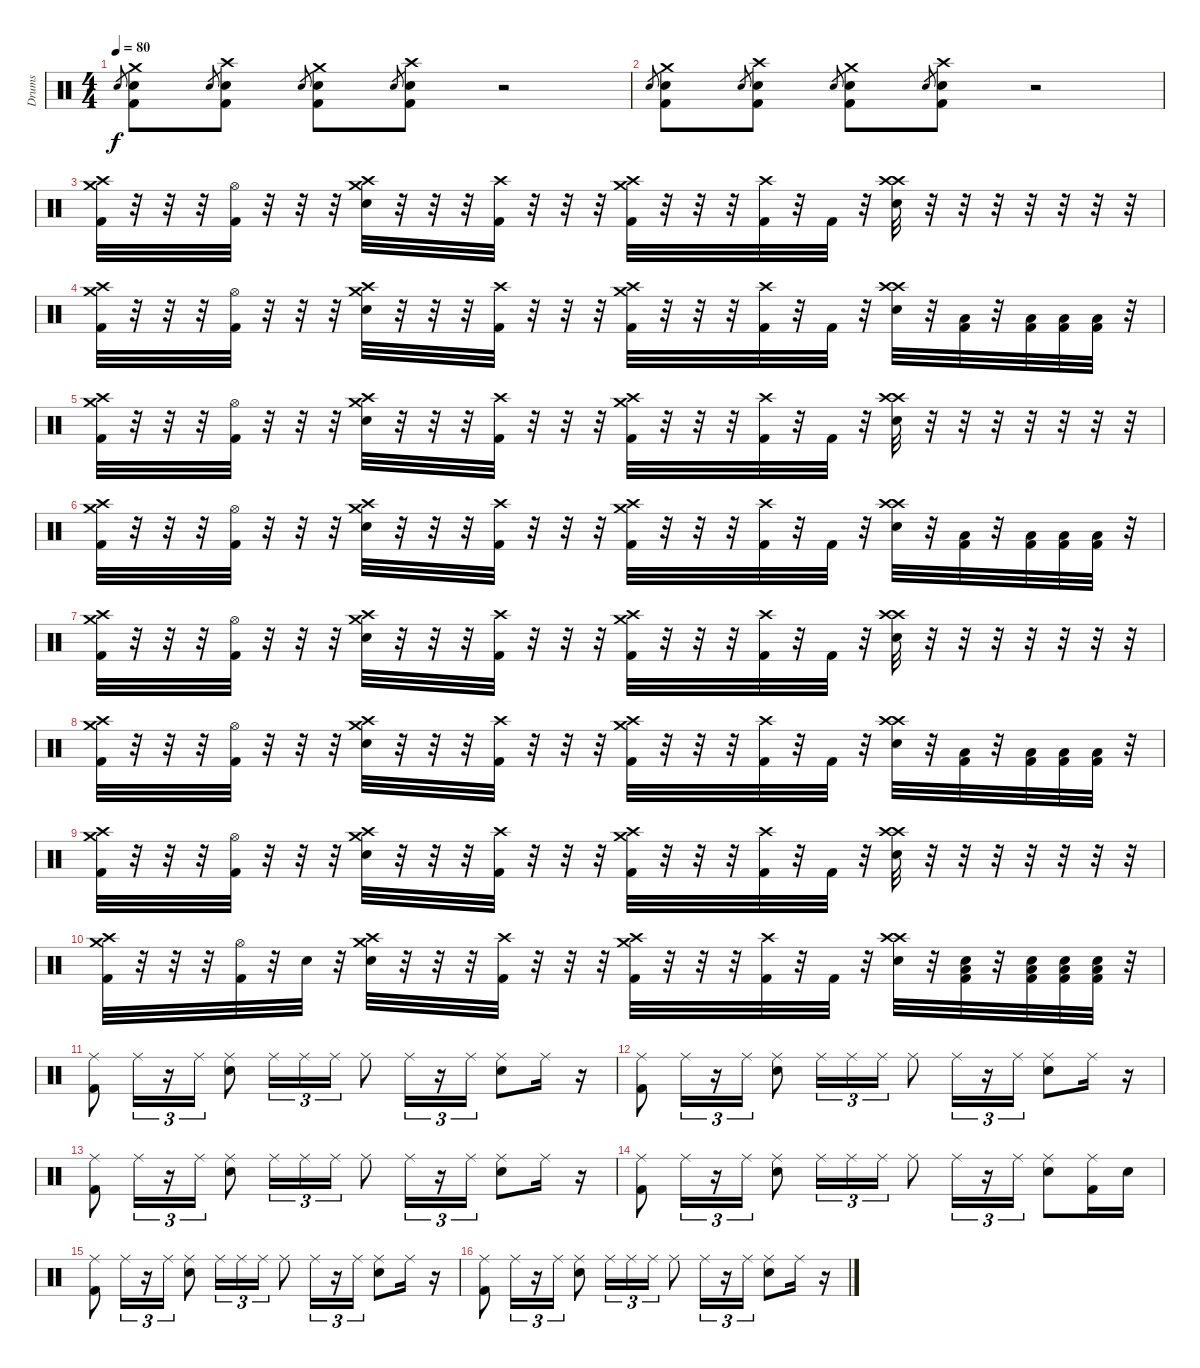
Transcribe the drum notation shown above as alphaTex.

\track ("Drums" "Drums") {instrument percussion}
\staff {score}
\articulation defaults
\ts (4 4)
\tempo 80
\clef neutral
\ks c "Electric Snare (hit)".8{gr dy f}
("Crash medium (hit)" "Electric Snare (hit)" "Kick (hit) 2").8 "Electric Snare (hit)".8{gr} ("Crash high (hit)" "Electric Snare (hit)" "Kick (hit) 2").8 "Electric Snare (hit)".8{gr} ("Crash medium (hit)" "Electric Snare (hit)" "Kick (hit) 2").8 "Electric Snare (hit)".8{gr} ("Crash high (hit)" "Electric Snare (hit)" "Kick (hit) 2").8 r.2 |
"Electric Snare (hit)".8{gr} ("Crash medium (hit)" "Electric Snare (hit)" "Kick (hit) 2").8 "Electric Snare (hit)".8{gr} ("Crash high (hit)" "Electric Snare (hit)" "Kick (hit) 2").8 "Electric Snare (hit)".8{gr} ("Crash medium (hit)" "Electric Snare (hit)" "Kick (hit) 2").8 "Electric Snare (hit)".8{gr} ("Crash high (hit)" "Electric Snare (hit)" "Kick (hit) 2").8 r.2 |
("Crash high (hit)" "Crash medium (hit)" "Kick (hit) 2").32{volume 15} r.32 r.32 r.32 ("Hi-Hat (open)" "Kick (hit) 2").32 r.32 r.32 r.32 ("Crash high (hit)" "Crash medium (hit)" "Electric Snare (hit)").32 r.32 r.32 r.32 ("Crash high (hit)" "Kick (hit) 2").32 r.32 r.32 r.32 ("Crash high (hit)" "Crash medium (hit)" "Kick (hit) 2").32 r.32 r.32 r.32 ("Crash high (hit)" "Kick (hit) 2").32 r.32 "Kick (hit) 2".32 r.32 ("Crash high (hit)" "Crash high (hit)" "Electric Snare (hit)").32 r.32 r.32 r.32 r.32 r.32 r.32 r.32 |
("Crash high (hit)" "Crash medium (hit)" "Kick (hit) 2").32{volume 15} r.32 r.32 r.32 ("Hi-Hat (open)" "Kick (hit) 2").32 r.32 r.32 r.32 ("Crash high (hit)" "Crash medium (hit)" "Electric Snare (hit)").32 r.32 r.32 r.32 ("Crash high (hit)" "Kick (hit) 2").32 r.32 r.32 r.32 ("Crash high (hit)" "Crash medium (hit)" "Kick (hit) 2").32 r.32 r.32 r.32 ("Crash high (hit)" "Kick (hit) 2").32 r.32 "Kick (hit) 2".32 r.32 ("Crash high (hit)" "Crash high (hit)" "Electric Snare (hit)").32 r.32 ("Low Tom (hit)" "Kick (hit) 2").32 r.32 ("Low Tom (hit)" "Kick (hit) 2").32 ("Low Tom (hit)" "Kick (hit) 2").32 ("Low Tom (hit)" "Kick (hit) 2").32 r.32 |
("Crash high (hit)" "Crash medium (hit)" "Kick (hit) 2").32{volume 15} r.32 r.32 r.32 ("Hi-Hat (open)" "Kick (hit) 2").32 r.32 r.32 r.32 ("Crash high (hit)" "Crash medium (hit)" "Electric Snare (hit)").32 r.32 r.32 r.32 ("Crash high (hit)" "Kick (hit) 2").32 r.32 r.32 r.32 ("Crash high (hit)" "Crash medium (hit)" "Kick (hit) 2").32 r.32 r.32 r.32 ("Crash high (hit)" "Kick (hit) 2").32 r.32 "Kick (hit) 2".32 r.32 ("Crash high (hit)" "Crash high (hit)" "Electric Snare (hit)").32 r.32 r.32 r.32 r.32 r.32 r.32 r.32 |
("Crash high (hit)" "Crash medium (hit)" "Kick (hit) 2").32{volume 15} r.32 r.32 r.32 ("Hi-Hat (open)" "Kick (hit) 2").32 r.32 r.32 r.32 ("Crash high (hit)" "Crash medium (hit)" "Electric Snare (hit)").32 r.32 r.32 r.32 ("Crash high (hit)" "Kick (hit) 2").32 r.32 r.32 r.32 ("Crash high (hit)" "Crash medium (hit)" "Kick (hit) 2").32 r.32 r.32 r.32 ("Crash high (hit)" "Kick (hit) 2").32 r.32 "Kick (hit) 2".32 r.32 ("Crash high (hit)" "Crash high (hit)" "Electric Snare (hit)").32 r.32 ("Low Tom (hit)" "Kick (hit) 2").32 r.32 ("Low Tom (hit)" "Kick (hit) 2").32 ("Low Tom (hit)" "Kick (hit) 2").32 ("Low Tom (hit)" "Kick (hit) 2").32 r.32 |
("Crash high (hit)" "Crash medium (hit)" "Kick (hit) 2").32{volume 15} r.32 r.32 r.32 ("Hi-Hat (open)" "Kick (hit) 2").32 r.32 r.32 r.32 ("Crash high (hit)" "Crash medium (hit)" "Electric Snare (hit)").32 r.32 r.32 r.32 ("Crash high (hit)" "Kick (hit) 2").32 r.32 r.32 r.32 ("Crash high (hit)" "Crash medium (hit)" "Kick (hit) 2").32 r.32 r.32 r.32 ("Crash high (hit)" "Kick (hit) 2").32 r.32 "Kick (hit) 2".32 r.32 ("Crash high (hit)" "Crash high (hit)" "Electric Snare (hit)").32 r.32 r.32 r.32 r.32 r.32 r.32 r.32 |
("Crash high (hit)" "Crash medium (hit)" "Kick (hit) 2").32{volume 15} r.32 r.32 r.32 ("Hi-Hat (open)" "Kick (hit) 2").32 r.32 r.32 r.32 ("Crash high (hit)" "Crash medium (hit)" "Electric Snare (hit)").32 r.32 r.32 r.32 ("Crash high (hit)" "Kick (hit) 2").32 r.32 r.32 r.32 ("Crash high (hit)" "Crash medium (hit)" "Kick (hit) 2").32 r.32 r.32 r.32 ("Crash high (hit)" "Kick (hit) 2").32 r.32 "Kick (hit) 2".32 r.32 ("Crash high (hit)" "Crash high (hit)" "Electric Snare (hit)").32 r.32 ("Low Tom (hit)" "Kick (hit) 2").32 r.32 ("Low Tom (hit)" "Kick (hit) 2").32 ("Low Tom (hit)" "Kick (hit) 2").32 ("Low Tom (hit)" "Kick (hit) 2").32 r.32 |
("Crash high (hit)" "Crash medium (hit)" "Kick (hit) 2").32{volume 15} r.32 r.32 r.32 ("Hi-Hat (open)" "Kick (hit) 2").32 r.32 r.32 r.32 ("Crash high (hit)" "Crash medium (hit)" "Electric Snare (hit)").32 r.32 r.32 r.32 ("Crash high (hit)" "Kick (hit) 2").32 r.32 r.32 r.32 ("Crash high (hit)" "Crash medium (hit)" "Kick (hit) 2").32 r.32 r.32 r.32 ("Crash high (hit)" "Kick (hit) 2").32 r.32 "Kick (hit) 2".32 r.32 ("Crash high (hit)" "Crash high (hit)" "Electric Snare (hit)").32 r.32 r.32 r.32 r.32 r.32 r.32 r.32 |
("Crash high (hit)" "Crash medium (hit)" "Kick (hit) 2").32{volume 15} r.32 r.32 r.32 ("Hi-Hat (open)" "Kick (hit) 2").32 r.32 "Electric Snare (hit)".32 r.32 ("Crash high (hit)" "Crash medium (hit)" "Electric Snare (hit)").32 r.32 r.32 r.32 ("Crash high (hit)" "Kick (hit) 2").32 r.32 r.32 r.32 ("Crash high (hit)" "Crash medium (hit)" "Kick (hit) 2").32 r.32 r.32 r.32 ("Crash high (hit)" "Kick (hit) 2").32 r.32 "Kick (hit) 2".32 r.32 ("Crash high (hit)" "Crash high (hit)" "Electric Snare (hit)").32 r.32 ("Electric Snare (hit)" "Low Tom (hit)" "Kick (hit) 2").32 r.32 ("Electric Snare (hit)" "Low Tom (hit)" "Kick (hit) 2").32 ("Electric Snare (hit)" "Low Tom (hit)" "Kick (hit) 2").32 ("Electric Snare (hit)" "Low Tom (hit)" "Kick (hit) 2").32 r.32 |
("Ride (middle)" "Kick (hit) 2").8 "Ride (middle)".16{tu (3 2)} r.16{tu (3 2)} "Ride (middle)".16{tu (3 2)} ("Ride (middle)" "Electric Snare (hit)").8 "Ride (middle)".16{tu (3 2)} "Ride (middle)".16{tu (3 2)} "Ride (middle)".16{tu (3 2)} "Ride (middle)".8 "Ride (middle)".16{tu (3 2)} r.16{tu (3 2)} "Ride (middle)".16{tu (3 2)} ("Ride (middle)" "Electric Snare (hit)").8 "Ride (middle)".16 r.16 |
("Ride (middle)" "Kick (hit) 2").8 "Ride (middle)".16{tu (3 2)} r.16{tu (3 2)} "Ride (middle)".16{tu (3 2)} ("Ride (middle)" "Electric Snare (hit)").8 "Ride (middle)".16{tu (3 2)} "Ride (middle)".16{tu (3 2)} "Ride (middle)".16{tu (3 2)} "Ride (middle)".8 "Ride (middle)".16{tu (3 2)} r.16{tu (3 2)} "Ride (middle)".16{tu (3 2)} ("Ride (middle)" "Electric Snare (hit)").8 "Ride (middle)".16 r.16 |
("Ride (middle)" "Kick (hit) 2").8 "Ride (middle)".16{tu (3 2)} r.16{tu (3 2)} "Ride (middle)".16{tu (3 2)} ("Ride (middle)" "Electric Snare (hit)").8 "Ride (middle)".16{tu (3 2)} "Ride (middle)".16{tu (3 2)} "Ride (middle)".16{tu (3 2)} "Ride (middle)".8 "Ride (middle)".16{tu (3 2)} r.16{tu (3 2)} "Ride (middle)".16{tu (3 2)} ("Ride (middle)" "Electric Snare (hit)").8 "Ride (middle)".16 r.16 |
("Ride (middle)" "Kick (hit) 2").8 "Ride (middle)".16{tu (3 2)} r.16{tu (3 2)} "Ride (middle)".16{tu (3 2)} ("Ride (middle)" "Electric Snare (hit)").8 "Ride (middle)".16{tu (3 2)} "Ride (middle)".16{tu (3 2)} "Ride (middle)".16{tu (3 2)} "Ride (middle)".8 "Ride (middle)".16{tu (3 2)} r.16{tu (3 2)} "Ride (middle)".16{tu (3 2)} ("Ride (middle)" "Electric Snare (hit)").8 ("Ride (middle)" "Kick (hit) 2").16 "Electric Snare (hit)".16 |
("Ride (middle)" "Kick (hit) 2").8 "Ride (middle)".16{tu (3 2)} r.16{tu (3 2)} "Ride (middle)".16{tu (3 2)} ("Ride (middle)" "Electric Snare (hit)").8 "Ride (middle)".16{tu (3 2)} "Ride (middle)".16{tu (3 2)} "Ride (middle)".16{tu (3 2)} "Ride (middle)".8 "Ride (middle)".16{tu (3 2)} r.16{tu (3 2)} "Ride (middle)".16{tu (3 2)} ("Ride (middle)" "Electric Snare (hit)").8 "Ride (middle)".16 r.16 |
("Ride (middle)" "Kick (hit) 2").8 "Ride (middle)".16{tu (3 2)} r.16{tu (3 2)} "Ride (middle)".16{tu (3 2)} ("Ride (middle)" "Electric Snare (hit)").8 "Ride (middle)".16{tu (3 2)} "Ride (middle)".16{tu (3 2)} "Ride (middle)".16{tu (3 2)} "Ride (middle)".8 "Ride (middle)".16{tu (3 2)} r.16{tu (3 2)} "Ride (middle)".16{tu (3 2)} ("Ride (middle)" "Electric Snare (hit)").8 "Ride (middle)".16 r.16
